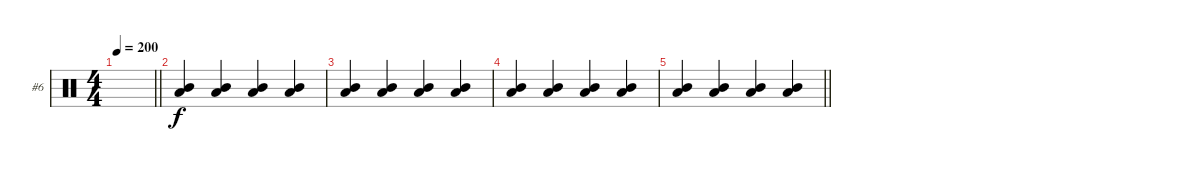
\bracketExtendMode groupsimilarinstruments
\firstSystemTrackNameOrientation horizontal
\otherSystemsTrackNameOrientation horizontal
\track ("Shawn \"Clown\" Crahan" "#6") {instrument percussion}
\staff {score}
\articulation defaults
\ts (4 4)
\tempo 200
\clef neutral
\barLineRight lightlight
\ks c
|
("Low Tom (hit)" "Mid Tom (hit)").4 ("Low Tom (hit)" "Mid Tom (hit)").4 ("Low Tom (hit)" "Mid Tom (hit)").4 ("Low Tom (hit)" "Mid Tom (hit)").4 |
("Low Tom (hit)" "Mid Tom (hit)").4 ("Low Tom (hit)" "Mid Tom (hit)").4 ("Low Tom (hit)" "Mid Tom (hit)").4 ("Low Tom (hit)" "Mid Tom (hit)").4 |
("Low Tom (hit)" "Mid Tom (hit)").4 ("Low Tom (hit)" "Mid Tom (hit)").4 ("Low Tom (hit)" "Mid Tom (hit)").4 ("Low Tom (hit)" "Mid Tom (hit)").4 |
\barLineRight lightlight
("Low Tom (hit)" "Mid Tom (hit)").4 ("Low Tom (hit)" "Mid Tom (hit)").4 ("Low Tom (hit)" "Mid Tom (hit)").4 ("Low Tom (hit)" "Mid Tom (hit)").4
